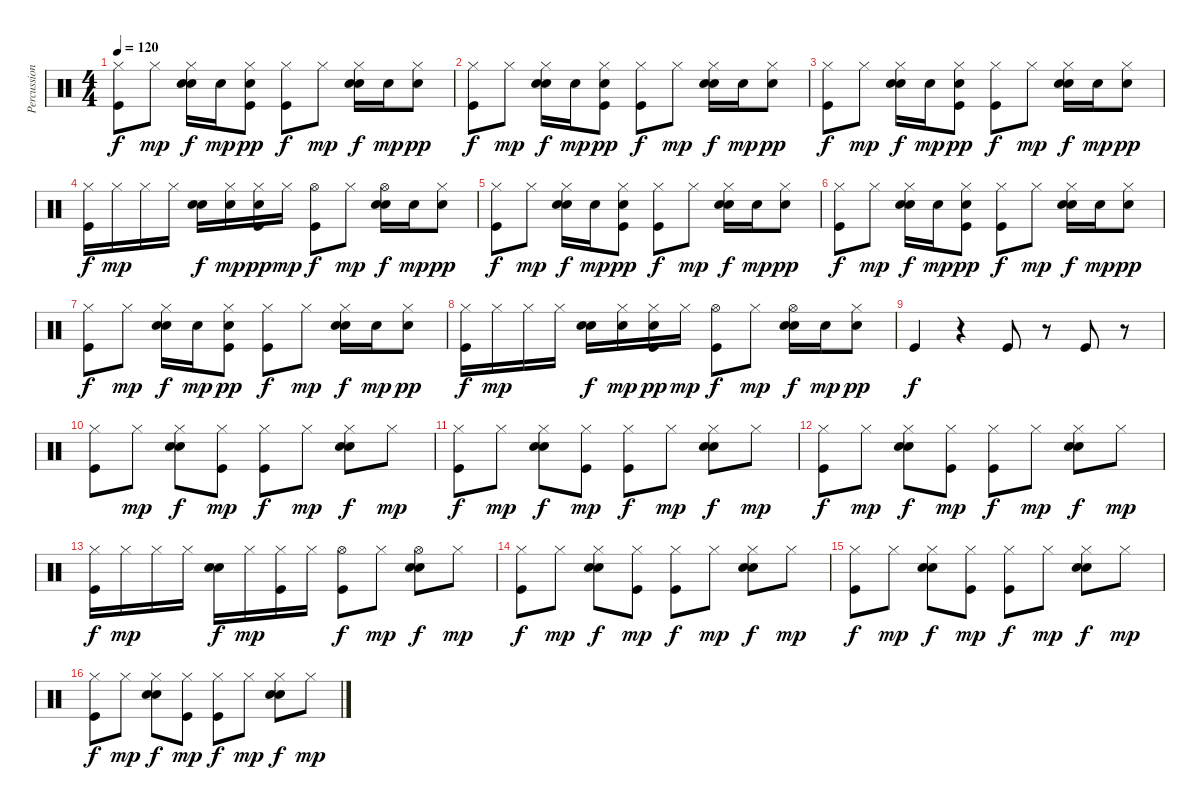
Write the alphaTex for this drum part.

\track ("Percussions" "Percussion") {instrument percussion}
\staff {score}
\articulation defaults
\ts (4 4)
\tempo 120
\clef neutral
\ks c
("Hi-Hat (closed)" "Kick (hit)").8{dy f} "Hi-Hat (closed)".8{dy mp} ("Hi-Hat (closed)" "Hand Clap (hit)" "Snare (hit) 2").16{dy f} "Hand Clap (hit)".16{dy mp} ("Hi-Hat (closed)" "Hand Clap (hit)" "Kick (hit)").8{dy pp} ("Hi-Hat (closed)" "Kick (hit)").8{dy f} "Hi-Hat (closed)".8{dy mp} ("Hi-Hat (closed)" "Hand Clap (hit)" "Snare (hit) 2").16{dy f} "Hand Clap (hit)".16{dy mp} ("Hi-Hat (closed)" "Hand Clap (hit)").8{dy pp} |
("Hi-Hat (closed)" "Kick (hit)").8{dy f} "Hi-Hat (closed)".8{dy mp} ("Hi-Hat (closed)" "Hand Clap (hit)" "Snare (hit) 2").16{dy f} "Hand Clap (hit)".16{dy mp} ("Hi-Hat (closed)" "Hand Clap (hit)" "Kick (hit)").8{dy pp} ("Hi-Hat (closed)" "Kick (hit)").8{dy f} "Hi-Hat (closed)".8{dy mp} ("Hi-Hat (closed)" "Hand Clap (hit)" "Snare (hit) 2").16{dy f} "Hand Clap (hit)".16{dy mp} ("Hi-Hat (closed)" "Hand Clap (hit)").8{dy pp} |
("Hi-Hat (closed)" "Kick (hit)").8{dy f} "Hi-Hat (closed)".8{dy mp} ("Hi-Hat (closed)" "Hand Clap (hit)" "Snare (hit) 2").16{dy f} "Hand Clap (hit)".16{dy mp} ("Hi-Hat (closed)" "Hand Clap (hit)" "Kick (hit)").8{dy pp} ("Hi-Hat (closed)" "Kick (hit)").8{dy f} "Hi-Hat (closed)".8{dy mp} ("Hi-Hat (closed)" "Hand Clap (hit)" "Snare (hit) 2").16{dy f} "Hand Clap (hit)".16{dy mp} ("Hi-Hat (closed)" "Hand Clap (hit)").8{dy pp} |
("Hi-Hat (closed)" "Kick (hit)").16{dy f} "Hi-Hat (closed)".16{dy mp} "Hi-Hat (closed)".16 "Hi-Hat (closed)".16 ("Hand Clap (hit)" "Snare (hit) 2").16{dy f} ("Hi-Hat (closed)" "Hand Clap (hit)").16{dy mp} ("Hi-Hat (closed)" "Hand Clap (hit)" "Kick (hit)").16{dy pp} "Hi-Hat (closed)".16{dy mp} ("Hi-Hat (open)" "Kick (hit)").8{dy f} "Hi-Hat (closed)".8{dy mp} ("Hi-Hat (open)" "Hand Clap (hit)" "Snare (hit) 2").16{dy f} "Hand Clap (hit)".16{dy mp} ("Hi-Hat (closed)" "Hand Clap (hit)").8{dy pp} |
("Hi-Hat (closed)" "Kick (hit)").8{dy f} "Hi-Hat (closed)".8{dy mp} ("Hi-Hat (closed)" "Hand Clap (hit)" "Snare (hit) 2").16{dy f} "Hand Clap (hit)".16{dy mp} ("Hi-Hat (closed)" "Hand Clap (hit)" "Kick (hit)").8{dy pp} ("Hi-Hat (closed)" "Kick (hit)").8{dy f} "Hi-Hat (closed)".8{dy mp} ("Hi-Hat (closed)" "Hand Clap (hit)" "Snare (hit) 2").16{dy f} "Hand Clap (hit)".16{dy mp} ("Hi-Hat (closed)" "Hand Clap (hit)").8{dy pp} |
("Hi-Hat (closed)" "Kick (hit)").8{dy f} "Hi-Hat (closed)".8{dy mp} ("Hi-Hat (closed)" "Hand Clap (hit)" "Snare (hit) 2").16{dy f} "Hand Clap (hit)".16{dy mp} ("Hi-Hat (closed)" "Hand Clap (hit)" "Kick (hit)").8{dy pp} ("Hi-Hat (closed)" "Kick (hit)").8{dy f} "Hi-Hat (closed)".8{dy mp} ("Hi-Hat (closed)" "Hand Clap (hit)" "Snare (hit) 2").16{dy f} "Hand Clap (hit)".16{dy mp} ("Hi-Hat (closed)" "Hand Clap (hit)").8{dy pp} |
("Hi-Hat (closed)" "Kick (hit)").8{dy f} "Hi-Hat (closed)".8{dy mp} ("Hi-Hat (closed)" "Hand Clap (hit)" "Snare (hit) 2").16{dy f} "Hand Clap (hit)".16{dy mp} ("Hi-Hat (closed)" "Hand Clap (hit)" "Kick (hit)").8{dy pp} ("Hi-Hat (closed)" "Kick (hit)").8{dy f} "Hi-Hat (closed)".8{dy mp} ("Hi-Hat (closed)" "Hand Clap (hit)" "Snare (hit) 2").16{dy f} "Hand Clap (hit)".16{dy mp} ("Hi-Hat (closed)" "Hand Clap (hit)").8{dy pp} |
("Hi-Hat (closed)" "Kick (hit)").16{dy f} "Hi-Hat (closed)".16{dy mp} "Hi-Hat (closed)".16 "Hi-Hat (closed)".16 ("Hand Clap (hit)" "Snare (hit) 2").16{dy f} ("Hi-Hat (closed)" "Hand Clap (hit)").16{dy mp} ("Hi-Hat (closed)" "Hand Clap (hit)" "Kick (hit)").16{dy pp} "Hi-Hat (closed)".16{dy mp} ("Hi-Hat (open)" "Kick (hit)").8{dy f} "Hi-Hat (closed)".8{dy mp} ("Hi-Hat (open)" "Hand Clap (hit)" "Snare (hit) 2").16{dy f} "Hand Clap (hit)".16{dy mp} ("Hi-Hat (closed)" "Hand Clap (hit)").8{dy pp} |
"Kick (hit)".4{dy f} r.4 "Kick (hit)".8 r.8 "Kick (hit)".8 r.8 |
("Hi-Hat (closed)" "Kick (hit)").8 "Hi-Hat (closed)".8{dy mp} ("Hi-Hat (closed)" "Hand Clap (hit)" "Snare (hit) 2").8{dy f} ("Hi-Hat (closed)" "Kick (hit)").8{dy mp} ("Hi-Hat (closed)" "Kick (hit)").8{dy f} "Hi-Hat (closed)".8{dy mp} ("Hi-Hat (closed)" "Hand Clap (hit)" "Snare (hit) 2").8{dy f} "Hi-Hat (closed)".8{dy mp} |
("Hi-Hat (closed)" "Kick (hit)").8{dy f} "Hi-Hat (closed)".8{dy mp} ("Hi-Hat (closed)" "Hand Clap (hit)" "Snare (hit) 2").8{dy f} ("Hi-Hat (closed)" "Kick (hit)").8{dy mp} ("Hi-Hat (closed)" "Kick (hit)").8{dy f} "Hi-Hat (closed)".8{dy mp} ("Hi-Hat (closed)" "Hand Clap (hit)" "Snare (hit) 2").8{dy f} "Hi-Hat (closed)".8{dy mp} |
("Hi-Hat (closed)" "Kick (hit)").8{dy f} "Hi-Hat (closed)".8{dy mp} ("Hi-Hat (closed)" "Hand Clap (hit)" "Snare (hit) 2").8{dy f} ("Hi-Hat (closed)" "Kick (hit)").8{dy mp} ("Hi-Hat (closed)" "Kick (hit)").8{dy f} "Hi-Hat (closed)".8{dy mp} ("Hi-Hat (closed)" "Hand Clap (hit)" "Snare (hit) 2").8{dy f} "Hi-Hat (closed)".8{dy mp} |
("Hi-Hat (closed)" "Kick (hit)").16{dy f} "Hi-Hat (closed)".16{dy mp} "Hi-Hat (closed)".16 "Hi-Hat (closed)".16 ("Hand Clap (hit)" "Snare (hit) 2").16{dy f} "Hi-Hat (closed)".16{dy mp} ("Hi-Hat (closed)" "Kick (hit)").16 "Hi-Hat (closed)".16 ("Hi-Hat (open)" "Kick (hit)").8{dy f} "Hi-Hat (closed)".8{dy mp} ("Hi-Hat (open)" "Hand Clap (hit)" "Snare (hit) 2").8{dy f} "Hi-Hat (closed)".8{dy mp} |
("Hi-Hat (closed)" "Kick (hit)").8{dy f} "Hi-Hat (closed)".8{dy mp} ("Hi-Hat (closed)" "Hand Clap (hit)" "Snare (hit) 2").8{dy f} ("Hi-Hat (closed)" "Kick (hit)").8{dy mp} ("Hi-Hat (closed)" "Kick (hit)").8{dy f} "Hi-Hat (closed)".8{dy mp} ("Hi-Hat (closed)" "Hand Clap (hit)" "Snare (hit) 2").8{dy f} "Hi-Hat (closed)".8{dy mp} |
("Hi-Hat (closed)" "Kick (hit)").8{dy f} "Hi-Hat (closed)".8{dy mp} ("Hi-Hat (closed)" "Hand Clap (hit)" "Snare (hit) 2").8{dy f} ("Hi-Hat (closed)" "Kick (hit)").8{dy mp} ("Hi-Hat (closed)" "Kick (hit)").8{dy f} "Hi-Hat (closed)".8{dy mp} ("Hi-Hat (closed)" "Hand Clap (hit)" "Snare (hit) 2").8{dy f} "Hi-Hat (closed)".8{dy mp} |
("Hi-Hat (closed)" "Kick (hit)").8{dy f} "Hi-Hat (closed)".8{dy mp} ("Hi-Hat (closed)" "Hand Clap (hit)" "Snare (hit) 2").8{dy f} ("Hi-Hat (closed)" "Kick (hit)").8{dy mp} ("Hi-Hat (closed)" "Kick (hit)").8{dy f} "Hi-Hat (closed)".8{dy mp} ("Hi-Hat (closed)" "Hand Clap (hit)" "Snare (hit) 2").8{dy f} "Hi-Hat (closed)".8{dy mp}
